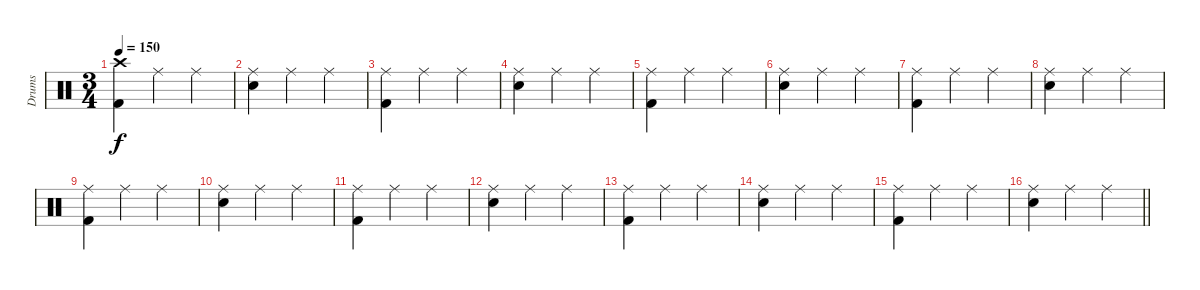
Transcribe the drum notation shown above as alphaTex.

\track ("Drums" "Drums") {instrument percussion}
\staff {score}
\articulation defaults
\ts (3 4)
\tempo 150
\clef neutral
\ks c
("Crash high (hit)" "Kick (hit) 2").4{dy f} "Ride (middle)".4 "Ride (middle)".4 |
("Ride (middle)" "Snare (hit) 2").4 "Ride (middle)".4 "Ride (middle)".4 |
("Ride (middle)" "Kick (hit) 2").4 "Ride (middle)".4 "Ride (middle)".4 |
("Ride (middle)" "Snare (hit) 2").4 "Ride (middle)".4 "Ride (middle)".4 |
("Ride (middle)" "Kick (hit) 2").4 "Ride (middle)".4 "Ride (middle)".4 |
("Ride (middle)" "Snare (hit) 2").4 "Ride (middle)".4 "Ride (middle)".4 |
("Ride (middle)" "Kick (hit) 2").4 "Ride (middle)".4 "Ride (middle)".4 |
("Ride (middle)" "Snare (hit) 2").4 "Ride (middle)".4 "Ride (middle)".4 |
("Ride (middle)" "Kick (hit) 2").4 "Ride (middle)".4 "Ride (middle)".4 |
("Ride (middle)" "Snare (hit) 2").4 "Ride (middle)".4 "Ride (middle)".4 |
("Ride (middle)" "Kick (hit) 2").4 "Ride (middle)".4 "Ride (middle)".4 |
("Ride (middle)" "Snare (hit) 2").4 "Ride (middle)".4 "Ride (middle)".4 |
("Ride (middle)" "Kick (hit) 2").4 "Ride (middle)".4 "Ride (middle)".4 |
("Ride (middle)" "Snare (hit) 2").4 "Ride (middle)".4 "Ride (middle)".4 |
("Ride (middle)" "Kick (hit) 2").4 "Ride (middle)".4 "Ride (middle)".4 |
\barLineRight lightlight
("Ride (middle)" "Snare (hit) 2").4 "Ride (middle)".4 "Ride (middle)".4
